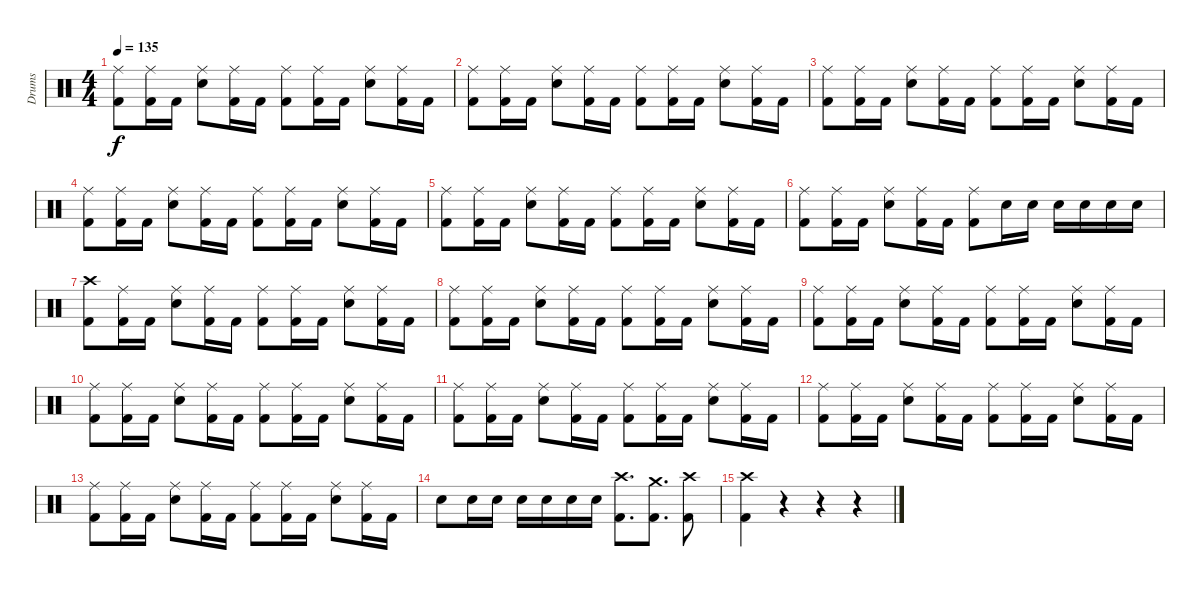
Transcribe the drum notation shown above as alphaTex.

\track ("Drums" "Drums") {instrument percussion}
\staff {score}
\articulation defaults
\ts (4 4)
\tempo 135
\clef neutral
\ks c
("Ride (middle)" "Kick (hit) 2").8{dy f} ("Ride (middle)" "Kick (hit) 2").16 "Kick (hit) 2".16 ("Ride (middle)" "Electric Snare (hit)").8 ("Ride (middle)" "Kick (hit) 2").16 "Kick (hit) 2".16 ("Ride (middle)" "Kick (hit) 2").8 ("Ride (middle)" "Kick (hit) 2").16 "Kick (hit) 2".16 ("Ride (middle)" "Electric Snare (hit)").8 ("Ride (middle)" "Kick (hit) 2").16 "Kick (hit) 2".16 |
("Ride (middle)" "Kick (hit) 2").8 ("Ride (middle)" "Kick (hit) 2").16 "Kick (hit) 2".16 ("Ride (middle)" "Electric Snare (hit)").8 ("Ride (middle)" "Kick (hit) 2").16 "Kick (hit) 2".16 ("Ride (middle)" "Kick (hit) 2").8 ("Ride (middle)" "Kick (hit) 2").16 "Kick (hit) 2".16 ("Ride (middle)" "Electric Snare (hit)").8 ("Ride (middle)" "Kick (hit) 2").16 "Kick (hit) 2".16 |
("Ride (middle)" "Kick (hit) 2").8 ("Ride (middle)" "Kick (hit) 2").16 "Kick (hit) 2".16 ("Ride (middle)" "Electric Snare (hit)").8 ("Ride (middle)" "Kick (hit) 2").16 "Kick (hit) 2".16 ("Ride (middle)" "Kick (hit) 2").8 ("Ride (middle)" "Kick (hit) 2").16 "Kick (hit) 2".16 ("Ride (middle)" "Electric Snare (hit)").8 ("Ride (middle)" "Kick (hit) 2").16 "Kick (hit) 2".16 |
("Ride (middle)" "Kick (hit) 2").8 ("Ride (middle)" "Kick (hit) 2").16 "Kick (hit) 2".16 ("Ride (middle)" "Electric Snare (hit)").8 ("Ride (middle)" "Kick (hit) 2").16 "Kick (hit) 2".16 ("Ride (middle)" "Kick (hit) 2").8 ("Ride (middle)" "Kick (hit) 2").16 "Kick (hit) 2".16 ("Ride (middle)" "Electric Snare (hit)").8 ("Ride (middle)" "Kick (hit) 2").16 "Kick (hit) 2".16 |
("Ride (middle)" "Kick (hit) 2").8 ("Ride (middle)" "Kick (hit) 2").16 "Kick (hit) 2".16 ("Ride (middle)" "Electric Snare (hit)").8 ("Ride (middle)" "Kick (hit) 2").16 "Kick (hit) 2".16 ("Ride (middle)" "Kick (hit) 2").8 ("Ride (middle)" "Kick (hit) 2").16 "Kick (hit) 2".16 ("Ride (middle)" "Electric Snare (hit)").8 ("Ride (middle)" "Kick (hit) 2").16 "Kick (hit) 2".16 |
("Ride (middle)" "Kick (hit) 2").8 ("Ride (middle)" "Kick (hit) 2").16 "Kick (hit) 2".16 ("Ride (middle)" "Electric Snare (hit)").8 ("Ride (middle)" "Kick (hit) 2").16 "Kick (hit) 2".16 ("Ride (middle)" "Kick (hit) 2").8 "Electric Snare (hit)".16 "Electric Snare (hit)".16 "Electric Snare (hit)".16 "Electric Snare (hit)".16 "Electric Snare (hit)".16 "Electric Snare (hit)".16 |
("Crash high (hit)" "Kick (hit) 2").8 ("Ride (middle)" "Kick (hit) 2").16 "Kick (hit) 2".16 ("Ride (middle)" "Electric Snare (hit)").8 ("Ride (middle)" "Kick (hit) 2").16 "Kick (hit) 2".16 ("Ride (middle)" "Kick (hit) 2").8 ("Ride (middle)" "Kick (hit) 2").16 "Kick (hit) 2".16 ("Ride (middle)" "Electric Snare (hit)").8 ("Ride (middle)" "Kick (hit) 2").16 "Kick (hit) 2".16 |
("Ride (middle)" "Kick (hit) 2").8 ("Ride (middle)" "Kick (hit) 2").16 "Kick (hit) 2".16 ("Ride (middle)" "Electric Snare (hit)").8 ("Ride (middle)" "Kick (hit) 2").16 "Kick (hit) 2".16 ("Ride (middle)" "Kick (hit) 2").8 ("Ride (middle)" "Kick (hit) 2").16 "Kick (hit) 2".16 ("Ride (middle)" "Electric Snare (hit)").8 ("Ride (middle)" "Kick (hit) 2").16 "Kick (hit) 2".16 |
("Ride (middle)" "Kick (hit) 2").8 ("Ride (middle)" "Kick (hit) 2").16 "Kick (hit) 2".16 ("Ride (middle)" "Electric Snare (hit)").8 ("Ride (middle)" "Kick (hit) 2").16 "Kick (hit) 2".16 ("Ride (middle)" "Kick (hit) 2").8 ("Ride (middle)" "Kick (hit) 2").16 "Kick (hit) 2".16 ("Ride (middle)" "Electric Snare (hit)").8 ("Ride (middle)" "Kick (hit) 2").16 "Kick (hit) 2".16 |
("Ride (middle)" "Kick (hit) 2").8 ("Ride (middle)" "Kick (hit) 2").16 "Kick (hit) 2".16 ("Ride (middle)" "Electric Snare (hit)").8 ("Ride (middle)" "Kick (hit) 2").16 "Kick (hit) 2".16 ("Ride (middle)" "Kick (hit) 2").8 ("Ride (middle)" "Kick (hit) 2").16 "Kick (hit) 2".16 ("Ride (middle)" "Electric Snare (hit)").8 ("Ride (middle)" "Kick (hit) 2").16 "Kick (hit) 2".16 |
("Ride (middle)" "Kick (hit) 2").8 ("Ride (middle)" "Kick (hit) 2").16 "Kick (hit) 2".16 ("Ride (middle)" "Electric Snare (hit)").8 ("Ride (middle)" "Kick (hit) 2").16 "Kick (hit) 2".16 ("Ride (middle)" "Kick (hit) 2").8 ("Ride (middle)" "Kick (hit) 2").16 "Kick (hit) 2".16 ("Ride (middle)" "Electric Snare (hit)").8 ("Ride (middle)" "Kick (hit) 2").16 "Kick (hit) 2".16 |
("Ride (middle)" "Kick (hit) 2").8 ("Ride (middle)" "Kick (hit) 2").16 "Kick (hit) 2".16 ("Ride (middle)" "Electric Snare (hit)").8 ("Ride (middle)" "Kick (hit) 2").16 "Kick (hit) 2".16 ("Ride (middle)" "Kick (hit) 2").8 ("Ride (middle)" "Kick (hit) 2").16 "Kick (hit) 2".16 ("Ride (middle)" "Electric Snare (hit)").8 ("Ride (middle)" "Kick (hit) 2").16 "Kick (hit) 2".16 |
("Ride (middle)" "Kick (hit) 2").8 ("Ride (middle)" "Kick (hit) 2").16 "Kick (hit) 2".16 ("Ride (middle)" "Electric Snare (hit)").8 ("Ride (middle)" "Kick (hit) 2").16 "Kick (hit) 2".16 ("Ride (middle)" "Kick (hit) 2").8 ("Ride (middle)" "Kick (hit) 2").16 "Kick (hit) 2".16 ("Ride (middle)" "Electric Snare (hit)").8 ("Ride (middle)" "Kick (hit) 2").16 "Kick (hit) 2".16 |
"Electric Snare (hit)".8 "Electric Snare (hit)".16 "Electric Snare (hit)".16 "Electric Snare (hit)".16 "Electric Snare (hit)".16 "Electric Snare (hit)".16 "Electric Snare (hit)".16 ("Crash high (hit)" "Kick (hit) 2").8{d} ("Crash medium (hit)" "Kick (hit) 2").8{d} ("Crash high (hit)" "Kick (hit) 2").8 |
("Crash high (hit)" "Kick (hit) 2").4 r.4 r.4 r.4
